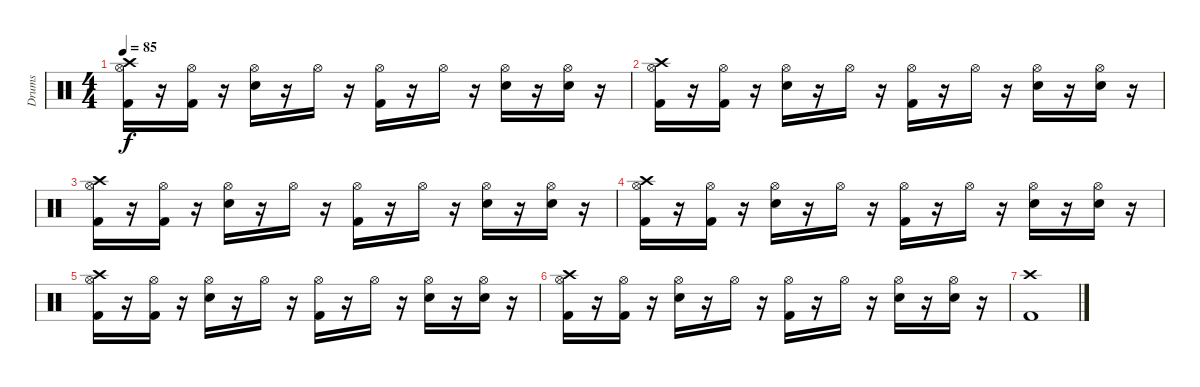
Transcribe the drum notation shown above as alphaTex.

\track ("Drums" "Drums") {instrument percussion}
\staff {score}
\articulation defaults
\ts (4 4)
\tempo 85
\clef neutral
\ks c
("Hi-Hat (open)" "Kick (hit) 2" "Crash high (hit)").16{dy f} r.16 ("Hi-Hat (open)" "Kick (hit) 2").16 r.16 ("Hi-Hat (open)" "Electric Snare (hit)").16 r.16 "Hi-Hat (open)".16 r.16 ("Hi-Hat (open)" "Kick (hit) 2").16 r.16 "Hi-Hat (open)".16 r.16 ("Hi-Hat (open)" "Electric Snare (hit)").16 r.16 ("Hi-Hat (open)" "Electric Snare (hit)").16 r.16 |
("Hi-Hat (open)" "Kick (hit) 2" "Crash high (hit)").16 r.16 ("Hi-Hat (open)" "Kick (hit) 2").16 r.16 ("Hi-Hat (open)" "Electric Snare (hit)").16 r.16 "Hi-Hat (open)".16 r.16 ("Hi-Hat (open)" "Kick (hit) 2").16 r.16 "Hi-Hat (open)".16 r.16 ("Hi-Hat (open)" "Electric Snare (hit)").16 r.16 ("Hi-Hat (open)" "Electric Snare (hit)").16 r.16 |
("Hi-Hat (open)" "Kick (hit) 2" "Crash high (hit)").16 r.16 ("Hi-Hat (open)" "Kick (hit) 2").16 r.16 ("Hi-Hat (open)" "Electric Snare (hit)").16 r.16 "Hi-Hat (open)".16 r.16 ("Hi-Hat (open)" "Kick (hit) 2").16 r.16 "Hi-Hat (open)".16 r.16 ("Hi-Hat (open)" "Electric Snare (hit)").16 r.16 ("Hi-Hat (open)" "Electric Snare (hit)").16 r.16 |
("Hi-Hat (open)" "Kick (hit) 2" "Crash high (hit)").16 r.16 ("Hi-Hat (open)" "Kick (hit) 2").16 r.16 ("Hi-Hat (open)" "Electric Snare (hit)").16 r.16 "Hi-Hat (open)".16 r.16 ("Hi-Hat (open)" "Kick (hit) 2").16 r.16 "Hi-Hat (open)".16 r.16 ("Hi-Hat (open)" "Electric Snare (hit)").16 r.16 ("Hi-Hat (open)" "Electric Snare (hit)").16 r.16 |
("Hi-Hat (open)" "Kick (hit) 2" "Crash high (hit)").16 r.16 ("Hi-Hat (open)" "Kick (hit) 2").16 r.16 ("Hi-Hat (open)" "Electric Snare (hit)").16 r.16 "Hi-Hat (open)".16 r.16 ("Hi-Hat (open)" "Kick (hit) 2").16 r.16 "Hi-Hat (open)".16 r.16 ("Hi-Hat (open)" "Electric Snare (hit)").16 r.16 ("Hi-Hat (open)" "Electric Snare (hit)").16 r.16 |
("Hi-Hat (open)" "Kick (hit) 2" "Crash high (hit)").16 r.16 ("Hi-Hat (open)" "Kick (hit) 2").16 r.16 ("Hi-Hat (open)" "Electric Snare (hit)").16 r.16 "Hi-Hat (open)".16 r.16 ("Hi-Hat (open)" "Kick (hit) 2").16 r.16 "Hi-Hat (open)".16 r.16 ("Hi-Hat (open)" "Electric Snare (hit)").16 r.16 ("Hi-Hat (open)" "Electric Snare (hit)").16 r.16 |
("Kick (hit) 2" "Crash high (hit)").1
